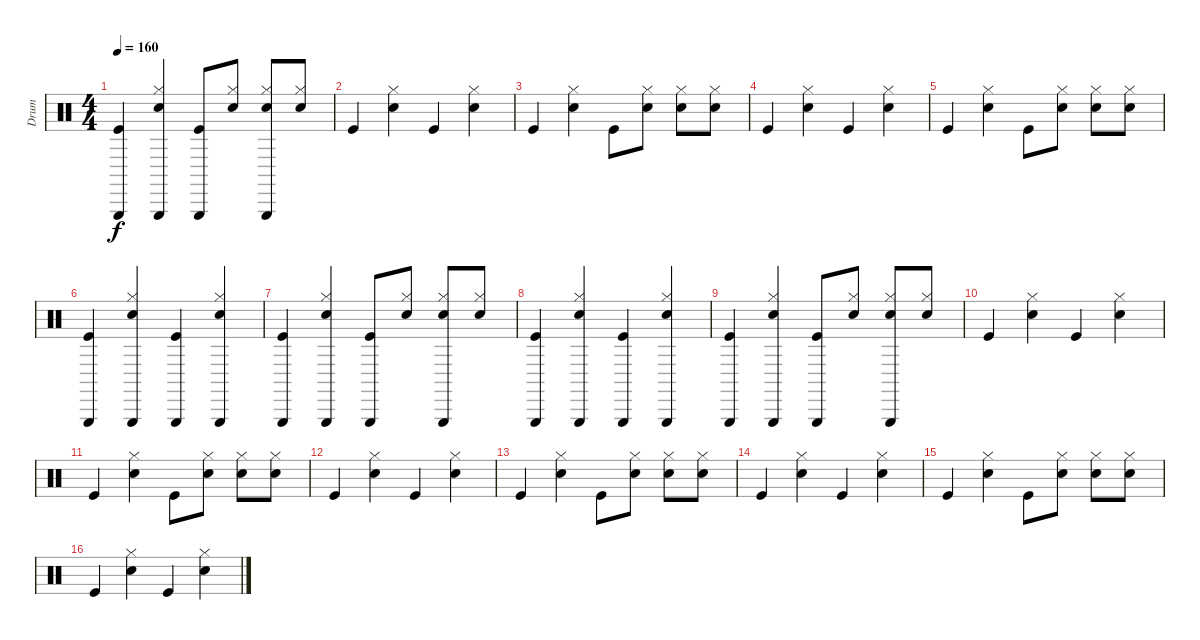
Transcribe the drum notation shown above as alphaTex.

\track ("Drum" "Drum") {instrument percussion}
\staff {score}
\articulation defaults
\ts (4 4)
\tempo 160
\clef neutral
\ks c
("Triangle (hit)" "Kick (hit)").4{dy f} ("Triangle (hit)" "Hi-Hat (closed)" "Snare (hit) 2").4 ("Triangle (hit)" "Kick (hit)").8 ("Hi-Hat (closed)" "Snare (hit) 2").8 ("Triangle (hit)" "Hi-Hat (closed)" "Snare (hit) 2").8 ("Hi-Hat (closed)" "Snare (hit) 2").8 |
"Kick (hit)".4 ("Hi-Hat (closed)" "Snare (hit) 2").4 "Kick (hit)".4 ("Hi-Hat (closed)" "Snare (hit) 2").4 |
"Kick (hit)".4 ("Hi-Hat (closed)" "Snare (hit) 2").4 "Kick (hit)".8 ("Hi-Hat (closed)" "Snare (hit) 2").8 ("Hi-Hat (closed)" "Snare (hit) 2").8 ("Hi-Hat (closed)" "Snare (hit) 2").8 |
"Kick (hit)".4 ("Hi-Hat (closed)" "Snare (hit) 2").4 "Kick (hit)".4 ("Hi-Hat (closed)" "Snare (hit) 2").4 |
"Kick (hit)".4 ("Hi-Hat (closed)" "Snare (hit) 2").4 "Kick (hit)".8 ("Hi-Hat (closed)" "Snare (hit) 2").8 ("Hi-Hat (closed)" "Snare (hit) 2").8 ("Hi-Hat (closed)" "Snare (hit) 2").8 |
("Triangle (hit)" "Kick (hit)").4 ("Triangle (hit)" "Hi-Hat (closed)" "Snare (hit) 2").4 ("Triangle (hit)" "Kick (hit)").4 ("Triangle (hit)" "Hi-Hat (closed)" "Snare (hit) 2").4 |
("Triangle (hit)" "Kick (hit)").4 ("Triangle (hit)" "Hi-Hat (closed)" "Snare (hit) 2").4 ("Triangle (hit)" "Kick (hit)").8 ("Hi-Hat (closed)" "Snare (hit) 2").8 ("Triangle (hit)" "Hi-Hat (closed)" "Snare (hit) 2").8 ("Hi-Hat (closed)" "Snare (hit) 2").8 |
("Triangle (hit)" "Kick (hit)").4 ("Triangle (hit)" "Hi-Hat (closed)" "Snare (hit) 2").4 ("Triangle (hit)" "Kick (hit)").4 ("Triangle (hit)" "Hi-Hat (closed)" "Snare (hit) 2").4 |
("Triangle (hit)" "Kick (hit)").4 ("Triangle (hit)" "Hi-Hat (closed)" "Snare (hit) 2").4 ("Triangle (hit)" "Kick (hit)").8 ("Hi-Hat (closed)" "Snare (hit) 2").8 ("Triangle (hit)" "Hi-Hat (closed)" "Snare (hit) 2").8 ("Hi-Hat (closed)" "Snare (hit) 2").8 |
"Kick (hit)".4 ("Hi-Hat (closed)" "Snare (hit) 2").4 "Kick (hit)".4 ("Hi-Hat (closed)" "Snare (hit) 2").4 |
"Kick (hit)".4 ("Hi-Hat (closed)" "Snare (hit) 2").4 "Kick (hit)".8 ("Hi-Hat (closed)" "Snare (hit) 2").8 ("Hi-Hat (closed)" "Snare (hit) 2").8 ("Hi-Hat (closed)" "Snare (hit) 2").8 |
"Kick (hit)".4 ("Hi-Hat (closed)" "Snare (hit) 2").4 "Kick (hit)".4 ("Hi-Hat (closed)" "Snare (hit) 2").4 |
"Kick (hit)".4 ("Hi-Hat (closed)" "Snare (hit) 2").4 "Kick (hit)".8 ("Hi-Hat (closed)" "Snare (hit) 2").8 ("Hi-Hat (closed)" "Snare (hit) 2").8 ("Hi-Hat (closed)" "Snare (hit) 2").8 |
"Kick (hit)".4 ("Hi-Hat (closed)" "Snare (hit) 2").4 "Kick (hit)".4 ("Hi-Hat (closed)" "Snare (hit) 2").4 |
"Kick (hit)".4 ("Hi-Hat (closed)" "Snare (hit) 2").4 "Kick (hit)".8 ("Hi-Hat (closed)" "Snare (hit) 2").8 ("Hi-Hat (closed)" "Snare (hit) 2").8 ("Hi-Hat (closed)" "Snare (hit) 2").8 |
"Kick (hit)".4 ("Hi-Hat (closed)" "Snare (hit) 2").4 "Kick (hit)".4 ("Hi-Hat (closed)" "Snare (hit) 2").4
